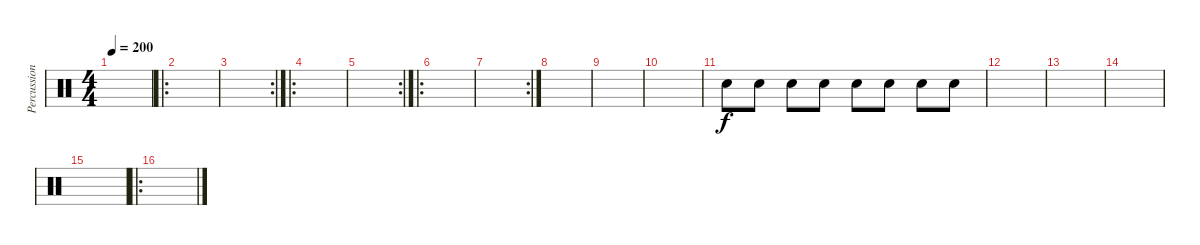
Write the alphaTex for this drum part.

\track ("Percussions" "Percussion") {instrument percussion}
\staff {score}
\articulation defaults
\ts (4 4)
\tempo 200
\clef neutral
\ks c
|
\ro
|
\rc 2
|
\ro
|
\rc 2
|
\ro
|
\rc 2
|
|
|
|
"Electric Snare (hit)".8 "Electric Snare (hit)".8 "Electric Snare (hit)".8 "Electric Snare (hit)".8 "Electric Snare (hit)".8 "Electric Snare (hit)".8 "Electric Snare (hit)".8 "Electric Snare (hit)".8 |
|
|
|
|
\ro
